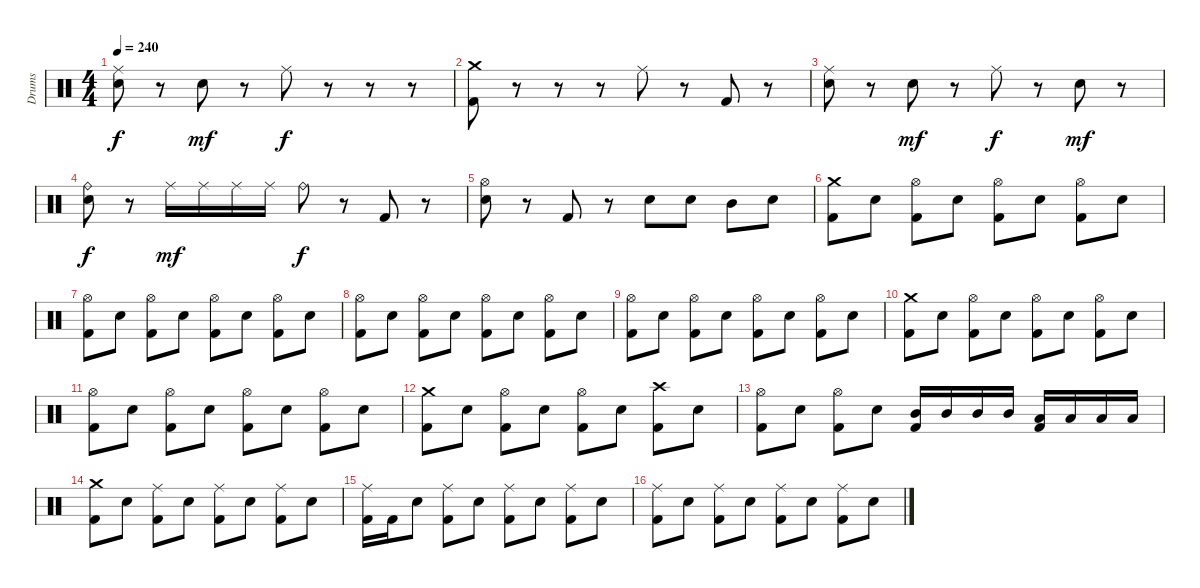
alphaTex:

\track ("Drums" "Drums") {instrument percussion}
\staff
\articulation defaults
\ts (4 4)
\tempo 240
\clef neutral
\ks c
("Ride (middle)" "Electric Snare (hit)").8{dy f} r.8 "Electric Snare (hit)".8{dy mf} r.8 "Ride (middle)".8{dy f} r.8 r.8 r.8 |
("Crash medium (hit)" "Kick (hit) 2").8 r.8 r.8 r.8 "Ride (middle)".8 r.8 "Kick (hit) 2".8 r.8 |
("Ride (middle)" "Electric Snare (hit)").8 r.8 "Electric Snare (hit)".8{dy mf} r.8 "Ride (middle)".8{dy f} r.8 "Electric Snare (hit)".8{dy mf} r.8 |
("Ride (bell)" "Electric Snare (hit)").8{dy f} r.8 "Ride (middle)".16{dy mf} "Ride (middle)".16 "Ride (middle)".16 "Ride (middle)".16 "Ride (bell)".8{dy f} r.8 "Kick (hit) 2".8 r.8 |
("Hi-Hat (open)" "Electric Snare (hit)").8 r.8 "Kick (hit) 2".8 r.8 "Electric Snare (hit)".8 "Electric Snare (hit)".8 "Mid Tom (hit)".8 "Electric Snare (hit)".8 |
("Crash medium (hit)" "Kick (hit) 2").8 "Electric Snare (hit)".8 ("Hi-Hat (open)" "Kick (hit) 2").8 "Electric Snare (hit)".8 ("Hi-Hat (open)" "Kick (hit) 2").8 "Electric Snare (hit)".8 ("Hi-Hat (open)" "Kick (hit) 2").8 "Electric Snare (hit)".8 |
("Hi-Hat (open)" "Kick (hit) 2").8 "Electric Snare (hit)".8 ("Hi-Hat (open)" "Kick (hit) 2").8 "Electric Snare (hit)".8 ("Hi-Hat (open)" "Kick (hit) 2").8 "Electric Snare (hit)".8 ("Hi-Hat (open)" "Kick (hit) 2").8 "Electric Snare (hit)".8 |
("Hi-Hat (open)" "Kick (hit) 2").8 "Electric Snare (hit)".8 ("Hi-Hat (open)" "Kick (hit) 2").8 "Electric Snare (hit)".8 ("Hi-Hat (open)" "Kick (hit) 2").8 "Electric Snare (hit)".8 ("Hi-Hat (open)" "Kick (hit) 2").8 "Electric Snare (hit)".8 |
("Hi-Hat (open)" "Kick (hit) 2").8 "Electric Snare (hit)".8 ("Hi-Hat (open)" "Kick (hit) 2").8 "Electric Snare (hit)".8 ("Hi-Hat (open)" "Kick (hit) 2").8 "Electric Snare (hit)".8 ("Hi-Hat (open)" "Kick (hit) 2").8 "Electric Snare (hit)".8 |
("Crash medium (hit)" "Kick (hit) 2").8 "Electric Snare (hit)".8 ("Hi-Hat (open)" "Kick (hit) 2").8 "Electric Snare (hit)".8 ("Hi-Hat (open)" "Kick (hit) 2").8 "Electric Snare (hit)".8 ("Hi-Hat (open)" "Kick (hit) 2").8 "Electric Snare (hit)".8 |
("Hi-Hat (open)" "Kick (hit) 2").8 "Electric Snare (hit)".8 ("Hi-Hat (open)" "Kick (hit) 2").8 "Electric Snare (hit)".8 ("Hi-Hat (open)" "Kick (hit) 2").8 "Electric Snare (hit)".8 ("Hi-Hat (open)" "Kick (hit) 2").8 "Electric Snare (hit)".8 |
("Crash medium (hit)" "Kick (hit) 2").8 "Electric Snare (hit)".8 ("Hi-Hat (open)" "Kick (hit) 2").8 "Electric Snare (hit)".8 ("Hi-Hat (open)" "Kick (hit) 2").8 "Electric Snare (hit)".8 ("Crash high (hit)" "Kick (hit) 2").8 "Electric Snare (hit)".8 |
("Hi-Hat (open)" "Kick (hit) 2").8 "Electric Snare (hit)".8 ("Hi-Hat (open)" "Kick (hit) 2").8 "Electric Snare (hit)".8 ("Mid Tom (hit)" "Kick (hit) 2").16 "Mid Tom (hit)".16 "Mid Tom (hit)".16 "Mid Tom (hit)".16 ("Low Tom (hit)" "Kick (hit) 2").16 "Low Tom (hit)".16 "Low Tom (hit)".16 "Low Tom (hit)".16 |
("Crash medium (hit)" "Kick (hit) 2").8 "Electric Snare (hit)".8 ("Ride (middle)" "Kick (hit) 2").8 "Electric Snare (hit)".8 ("Ride (middle)" "Kick (hit) 2").8 "Electric Snare (hit)".8 ("Ride (middle)" "Kick (hit) 2").8 "Electric Snare (hit)".8 |
("Ride (middle)" "Kick (hit) 2").16 "Kick (hit) 2".16 "Electric Snare (hit)".8 ("Ride (middle)" "Kick (hit) 2").8 "Electric Snare (hit)".8 ("Ride (middle)" "Kick (hit) 2").8 "Electric Snare (hit)".8 ("Ride (middle)" "Kick (hit) 2").8 "Electric Snare (hit)".8 |
("Ride (middle)" "Kick (hit) 2").8 "Electric Snare (hit)".8 ("Ride (middle)" "Kick (hit) 2").8 "Electric Snare (hit)".8 ("Ride (middle)" "Kick (hit) 2").8 "Electric Snare (hit)".8 ("Ride (middle)" "Kick (hit) 2").8 "Electric Snare (hit)".8
